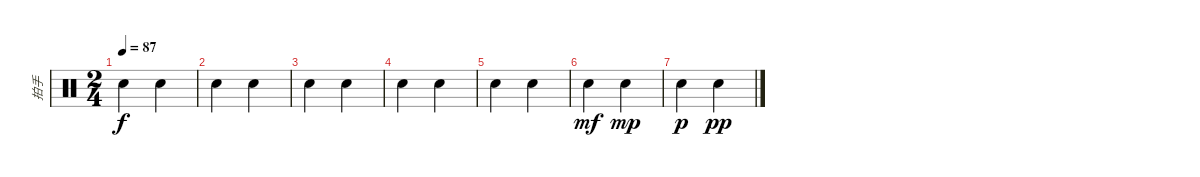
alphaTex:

\track ("拍手" "拍手") {instrument percussion}
\staff {score}
\articulation defaults
\ts (2 4)
\tempo 87
\clef neutral
\ks c "Hand Clap (hit)".4{dy f} "Hand Clap (hit)".4
|
"Hand Clap (hit)".4 "Hand Clap (hit)".4 |
"Hand Clap (hit)".4 "Hand Clap (hit)".4 |
"Hand Clap (hit)".4 "Hand Clap (hit)".4 |
"Hand Clap (hit)".4 "Hand Clap (hit)".4 |
"Hand Clap (hit)".4{dy mf} "Hand Clap (hit)".4{dy mp} |
"Hand Clap (hit)".4{dy p} "Hand Clap (hit)".4{dy pp}
